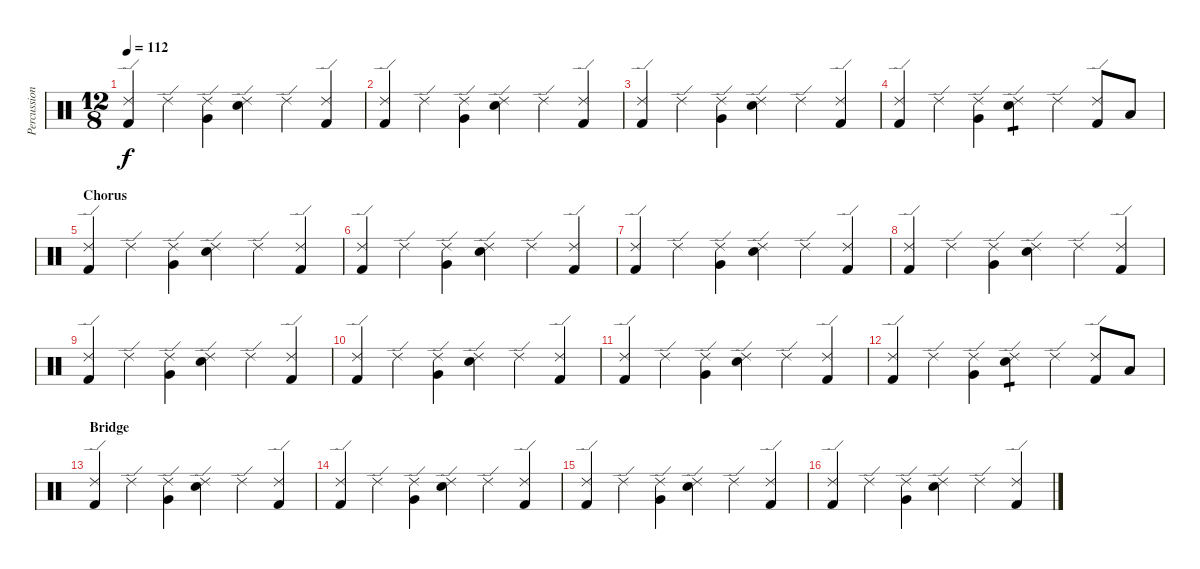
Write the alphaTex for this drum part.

\track ("Percussion" "Percussion") {instrument percussion}
\staff {score}
\articulation defaults
\ts (12 8)
\tempo 112
\clef neutral
\ks c
("Ride (edge) 2" "Kick (hit) 2").4{dy f} "Ride (edge) 2".4 ("Ride (edge) 2" "Very Low Tom (hit)").4 ("Ride (edge) 2" "Electric Snare (hit)").4 "Ride (edge) 2".4 ("Ride (edge) 2" "Kick (hit) 2").4 |
("Ride (edge) 2" "Kick (hit) 2").4 "Ride (edge) 2".4 ("Ride (edge) 2" "Very Low Tom (hit)").4 ("Ride (edge) 2" "Electric Snare (hit)").4 "Ride (edge) 2".4 ("Ride (edge) 2" "Kick (hit) 2").4 |
("Ride (edge) 2" "Kick (hit) 2").4 "Ride (edge) 2".4 ("Ride (edge) 2" "Very Low Tom (hit)").4 ("Ride (edge) 2" "Electric Snare (hit)").4 "Ride (edge) 2".4 ("Ride (edge) 2" "Kick (hit) 2").4 |
("Ride (edge) 2" "Kick (hit) 2").4 "Ride (edge) 2".4 ("Ride (edge) 2" "Very Low Tom (hit)").4 ("Ride (edge) 2" "Electric Snare (hit)").4{tp 1} "Ride (edge) 2".4 ("Ride (edge) 2" "Kick (hit) 2").8 "Low Tom (hit)".8 |
\section ("" "Chorus")
("Ride (edge) 2" "Kick (hit) 2").4 "Ride (edge) 2".4 ("Ride (edge) 2" "Very Low Tom (hit)").4 ("Ride (edge) 2" "Electric Snare (hit)").4 "Ride (edge) 2".4 ("Ride (edge) 2" "Kick (hit) 2").4 |
("Ride (edge) 2" "Kick (hit) 2").4 "Ride (edge) 2".4 ("Ride (edge) 2" "Very Low Tom (hit)").4 ("Ride (edge) 2" "Electric Snare (hit)").4 "Ride (edge) 2".4 ("Ride (edge) 2" "Kick (hit) 2").4 |
("Ride (edge) 2" "Kick (hit) 2").4 "Ride (edge) 2".4 ("Ride (edge) 2" "Very Low Tom (hit)").4 ("Ride (edge) 2" "Electric Snare (hit)").4 "Ride (edge) 2".4 ("Ride (edge) 2" "Kick (hit) 2").4 |
("Ride (edge) 2" "Kick (hit) 2").4 "Ride (edge) 2".4 ("Ride (edge) 2" "Very Low Tom (hit)").4 ("Ride (edge) 2" "Electric Snare (hit)").4 "Ride (edge) 2".4 ("Ride (edge) 2" "Kick (hit) 2").4 |
("Ride (edge) 2" "Kick (hit) 2").4 "Ride (edge) 2".4 ("Ride (edge) 2" "Very Low Tom (hit)").4 ("Ride (edge) 2" "Electric Snare (hit)").4 "Ride (edge) 2".4 ("Ride (edge) 2" "Kick (hit) 2").4 |
("Ride (edge) 2" "Kick (hit) 2").4 "Ride (edge) 2".4 ("Ride (edge) 2" "Very Low Tom (hit)").4 ("Ride (edge) 2" "Electric Snare (hit)").4 "Ride (edge) 2".4 ("Ride (edge) 2" "Kick (hit) 2").4 |
("Ride (edge) 2" "Kick (hit) 2").4 "Ride (edge) 2".4 ("Ride (edge) 2" "Very Low Tom (hit)").4 ("Ride (edge) 2" "Electric Snare (hit)").4 "Ride (edge) 2".4 ("Ride (edge) 2" "Kick (hit) 2").4 |
("Ride (edge) 2" "Kick (hit) 2").4 "Ride (edge) 2".4 ("Ride (edge) 2" "Very Low Tom (hit)").4 ("Ride (edge) 2" "Electric Snare (hit)").4{tp 1} "Ride (edge) 2".4 ("Ride (edge) 2" "Kick (hit) 2").8 "Low Tom (hit)".8 |
\section ("" "Bridge")
("Ride (edge) 2" "Kick (hit) 2").4 "Ride (edge) 2".4 ("Ride (edge) 2" "Very Low Tom (hit)").4 ("Ride (edge) 2" "Electric Snare (hit)").4 "Ride (edge) 2".4 ("Ride (edge) 2" "Kick (hit) 2").4 |
("Ride (edge) 2" "Kick (hit) 2").4 "Ride (edge) 2".4 ("Ride (edge) 2" "Very Low Tom (hit)").4 ("Ride (edge) 2" "Electric Snare (hit)").4 "Ride (edge) 2".4 ("Ride (edge) 2" "Kick (hit) 2").4 |
("Ride (edge) 2" "Kick (hit) 2").4 "Ride (edge) 2".4 ("Ride (edge) 2" "Very Low Tom (hit)").4 ("Ride (edge) 2" "Electric Snare (hit)").4 "Ride (edge) 2".4 ("Ride (edge) 2" "Kick (hit) 2").4 |
("Ride (edge) 2" "Kick (hit) 2").4 "Ride (edge) 2".4 ("Ride (edge) 2" "Very Low Tom (hit)").4 ("Ride (edge) 2" "Electric Snare (hit)").4 "Ride (edge) 2".4 ("Ride (edge) 2" "Kick (hit) 2").4
